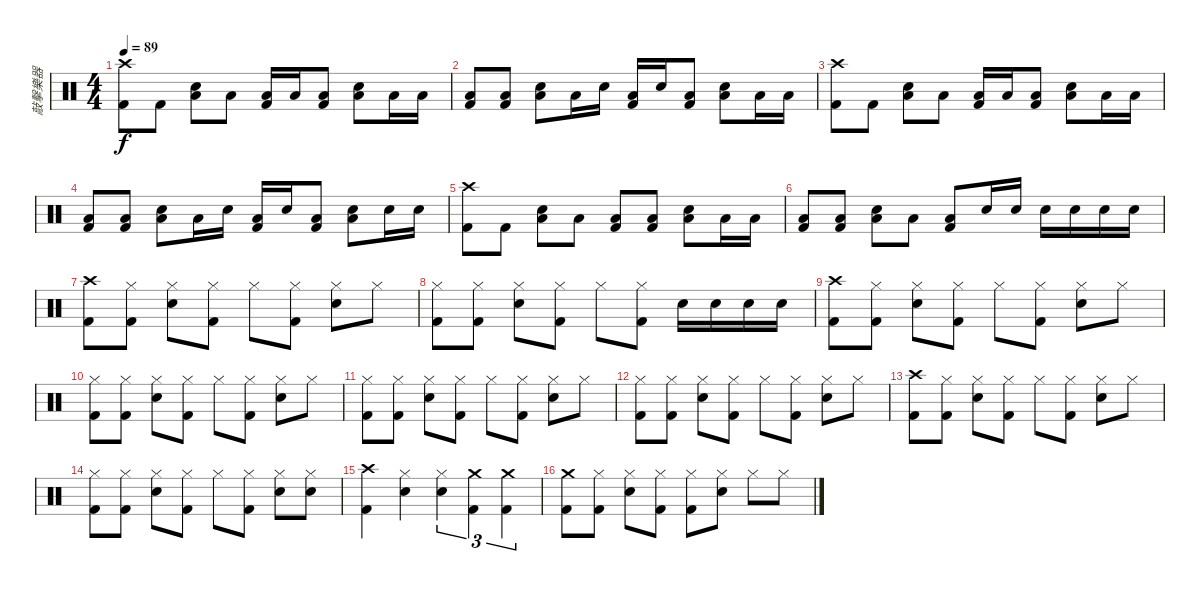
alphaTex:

\track ("敲擊樂器" "敲擊樂器") {instrument percussion}
\staff {score}
\articulation defaults
\ts (4 4)
\tempo 89
\clef neutral
\ks c
("Crash high (hit)" "Kick (hit) 2").8{dy f} "Kick (hit) 2".8 ("Snare (hit) 2" "Low Floor Tom (hit)").8 "Low Floor Tom (hit)".8 ("Low Floor Tom (hit)" "Kick (hit) 2").16 "Low Floor Tom (hit)".16 ("Low Floor Tom (hit)" "Kick (hit) 2").8 ("Snare (hit) 2" "Low Floor Tom (hit)").8 "Low Floor Tom (hit)".16 "Low Floor Tom (hit)".16 |
("Low Floor Tom (hit)" "Kick (hit) 2").8 ("Low Floor Tom (hit)" "Kick (hit) 2").8 ("Snare (hit) 2" "Low Floor Tom (hit)").8 "Low Floor Tom (hit)".16 "Snare (hit) 2".16 ("Low Floor Tom (hit)" "Kick (hit) 2").16 "Snare (hit) 2".16 ("Low Floor Tom (hit)" "Kick (hit) 2").8 ("Snare (hit) 2" "Low Floor Tom (hit)").8 "Low Floor Tom (hit)".16 "Low Floor Tom (hit)".16 |
("Crash high (hit)" "Kick (hit) 2").8 "Kick (hit) 2".8 ("Snare (hit) 2" "Low Floor Tom (hit)").8 "Low Floor Tom (hit)".8 ("Low Floor Tom (hit)" "Kick (hit) 2").16 "Low Floor Tom (hit)".16 ("Low Floor Tom (hit)" "Kick (hit) 2").8 ("Snare (hit) 2" "Low Floor Tom (hit)").8 "Low Floor Tom (hit)".16 "Low Floor Tom (hit)".16 |
("Low Floor Tom (hit)" "Kick (hit) 2").8 ("Low Floor Tom (hit)" "Kick (hit) 2").8 ("Snare (hit) 2" "Low Floor Tom (hit)").8 "Low Floor Tom (hit)".16 "Snare (hit) 2".16 ("Low Floor Tom (hit)" "Kick (hit) 2").16 "Snare (hit) 2".16 ("Low Floor Tom (hit)" "Kick (hit) 2").8 ("Snare (hit) 2" "Low Floor Tom (hit)").8 "Snare (hit) 2".16 "Snare (hit) 2".16 |
("Crash high (hit)" "Kick (hit) 2").8 "Kick (hit) 2".8 ("Snare (hit) 2" "Low Floor Tom (hit)").8 "Low Floor Tom (hit)".8 ("Low Floor Tom (hit)" "Kick (hit) 2").8 ("Low Floor Tom (hit)" "Kick (hit) 2").8 ("Snare (hit) 2" "Low Floor Tom (hit)").8 "Low Floor Tom (hit)".16 "Low Floor Tom (hit)".16 |
("Low Floor Tom (hit)" "Kick (hit) 2").8 ("Low Floor Tom (hit)" "Kick (hit) 2").8 ("Snare (hit) 2" "Low Floor Tom (hit)").8 "Low Floor Tom (hit)".8 ("Low Floor Tom (hit)" "Kick (hit) 2").8 "Snare (hit) 2".16 "Snare (hit) 2".16 "Snare (hit) 2".16 "Snare (hit) 2".16 "Snare (hit) 2".16 "Snare (hit) 2".16 |
("Crash high (hit)" "Kick (hit) 2").8 ("Hi-Hat (closed)" "Kick (hit) 2").8 ("Hi-Hat (closed)" "Snare (hit) 2").8 ("Hi-Hat (closed)" "Kick (hit) 2").8 "Hi-Hat (closed)".8 ("Hi-Hat (closed)" "Kick (hit) 2").8 ("Hi-Hat (closed)" "Snare (hit) 2").8 "Hi-Hat (closed)".8 |
("Hi-Hat (closed)" "Kick (hit) 2").8 ("Hi-Hat (closed)" "Kick (hit) 2").8 ("Hi-Hat (closed)" "Snare (hit) 2").8 ("Hi-Hat (closed)" "Kick (hit) 2").8 "Hi-Hat (closed)".8 ("Hi-Hat (closed)" "Kick (hit) 2").8 "Snare (hit) 2".16 "Snare (hit) 2".16 "Snare (hit) 2".16 "Snare (hit) 2".16 |
("Crash high (hit)" "Kick (hit) 2").8 ("Hi-Hat (closed)" "Kick (hit) 2").8 ("Hi-Hat (closed)" "Snare (hit) 2").8 ("Hi-Hat (closed)" "Kick (hit) 2").8 "Hi-Hat (closed)".8 ("Hi-Hat (closed)" "Kick (hit) 2").8 ("Hi-Hat (closed)" "Snare (hit) 2").8 "Hi-Hat (closed)".8 |
("Hi-Hat (closed)" "Kick (hit) 2").8 ("Hi-Hat (closed)" "Kick (hit) 2").8 ("Hi-Hat (closed)" "Snare (hit) 2").8 ("Hi-Hat (closed)" "Kick (hit) 2").8 "Hi-Hat (closed)".8 ("Hi-Hat (closed)" "Kick (hit) 2").8 ("Hi-Hat (closed)" "Snare (hit) 2").8 "Hi-Hat (closed)".8 |
("Hi-Hat (closed)" "Kick (hit) 2").8 ("Hi-Hat (closed)" "Kick (hit) 2").8 ("Hi-Hat (closed)" "Snare (hit) 2").8 ("Hi-Hat (closed)" "Kick (hit) 2").8 "Hi-Hat (closed)".8 ("Hi-Hat (closed)" "Kick (hit) 2").8 ("Hi-Hat (closed)" "Snare (hit) 2").8 "Hi-Hat (closed)".8 |
("Hi-Hat (closed)" "Kick (hit) 2").8 ("Hi-Hat (closed)" "Kick (hit) 2").8 ("Hi-Hat (closed)" "Snare (hit) 2").8 ("Hi-Hat (closed)" "Kick (hit) 2").8 "Hi-Hat (closed)".8 ("Hi-Hat (closed)" "Kick (hit) 2").8 ("Hi-Hat (closed)" "Snare (hit) 2").8 "Hi-Hat (closed)".8 |
("Crash high (hit)" "Kick (hit) 2").8 ("Hi-Hat (closed)" "Kick (hit) 2").8 ("Hi-Hat (closed)" "Snare (hit) 2").8 ("Hi-Hat (closed)" "Kick (hit) 2").8 "Hi-Hat (closed)".8 ("Hi-Hat (closed)" "Kick (hit) 2").8 ("Hi-Hat (closed)" "Snare (hit) 2").8 "Hi-Hat (closed)".8 |
("Hi-Hat (closed)" "Kick (hit) 2").8 ("Hi-Hat (closed)" "Kick (hit) 2").8 ("Hi-Hat (closed)" "Snare (hit) 2").8 ("Hi-Hat (closed)" "Kick (hit) 2").8 "Hi-Hat (closed)".8 ("Hi-Hat (closed)" "Kick (hit) 2").8 ("Hi-Hat (closed)" "Snare (hit) 2").8 ("Hi-Hat (closed)" "Snare (hit) 2").8 |
("Crash high (hit)" "Kick (hit) 2").4 ("Hi-Hat (closed)" "Snare (hit) 2").4 ("Hi-Hat (closed)" "Snare (hit) 2").4{tu (3 2)} ("Crash medium (hit)" "Kick (hit) 2").4{tu (3 2)} ("Crash medium (hit)" "Kick (hit) 2").4{tu (3 2)} |
("Crash medium (hit)" "Kick (hit) 2").8 ("Hi-Hat (closed)" "Kick (hit) 2").8 ("Hi-Hat (closed)" "Snare (hit) 2").8 ("Hi-Hat (closed)" "Kick (hit) 2").8 ("Hi-Hat (closed)" "Kick (hit) 2").8 ("Hi-Hat (closed)" "Snare (hit) 2").8 "Hi-Hat (closed)".8 "Hi-Hat (closed)".8
